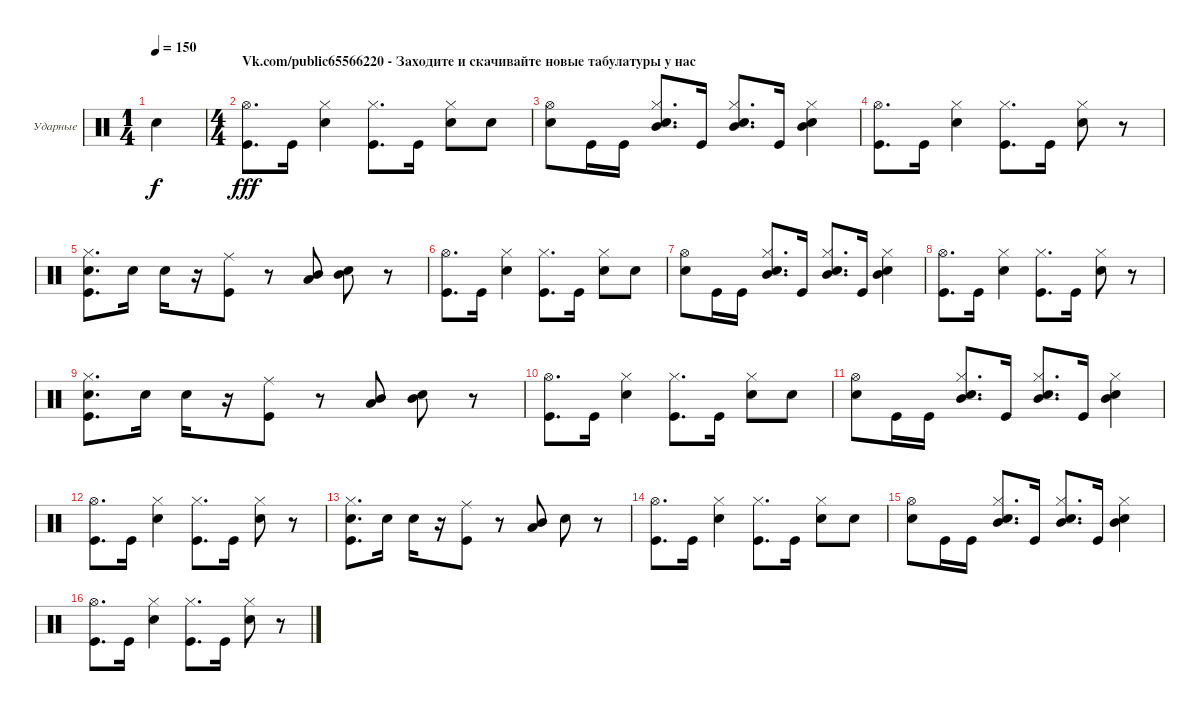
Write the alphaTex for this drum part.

\bracketExtendMode groupsimilarinstruments
\firstSystemTrackNameOrientation horizontal
\otherSystemsTrackNameOrientation horizontal
\track ("Максим Удалов" "Ударные") {instrument percussion}
\staff {score}
\articulation defaults
\ts (1 4)
\tempo 150
\clef neutral
\ks c "Snare (hit) 2".4{dy f}
|
\ts (4 4)
\section ("" "Vk.com/public65566220 - Заходите и скачивайте новые табулатуры у нас")
("Hi-Hat (open)" "Kick (hit)").8{d dy fff} "Kick (hit)".16 ("Hi-Hat (closed)" "Snare (hit) 2").4 ("Hi-Hat (closed)" "Kick (hit)").8{d} "Kick (hit)".16 ("Hi-Hat (closed)" "Snare (hit) 2").8 "Snare (hit) 2".8 |
("Hi-Hat (open)" "Snare (hit) 2").8 "Kick (hit)".16 "Kick (hit)".16 ("Hi-Hat (closed)" "Mid Tom (hit)" "Snare (hit) 2").8{d} "Kick (hit)".16 ("Hi-Hat (closed)" "Mid Tom (hit)" "Snare (hit) 2").8{d} "Kick (hit)".16 ("Hi-Hat (closed)" "Mid Tom (hit)" "Snare (hit) 2").4 |
("Hi-Hat (open)" "Kick (hit)").8{d} "Kick (hit)".16 ("Hi-Hat (closed)" "Snare (hit) 2").4 ("Hi-Hat (closed)" "Kick (hit)").8{d} "Kick (hit)".16 ("Hi-Hat (closed)" "Snare (hit) 2").8 r.8 |
("Hi-Hat (closed)" "Snare (hit) 2" "Kick (hit)").8{d} "Snare (hit) 2".16 "Snare (hit) 2".16 r.16 ("Ride (middle)" "Kick (hit)").8 r.8 ("Low Tom (hit)" "Mid Tom (hit)").8 ("Mid Tom (hit)" "Snare (hit) 2").8 r.8 |
("Hi-Hat (open)" "Kick (hit)").8{d} "Kick (hit)".16 ("Hi-Hat (closed)" "Snare (hit) 2").4 ("Hi-Hat (closed)" "Kick (hit)").8{d} "Kick (hit)".16 ("Hi-Hat (closed)" "Snare (hit) 2").8 "Snare (hit) 2".8 |
("Hi-Hat (open)" "Snare (hit) 2").8 "Kick (hit)".16 "Kick (hit)".16 ("Hi-Hat (closed)" "Mid Tom (hit)" "Snare (hit) 2").8{d} "Kick (hit)".16 ("Hi-Hat (closed)" "Mid Tom (hit)" "Snare (hit) 2").8{d} "Kick (hit)".16 ("Hi-Hat (closed)" "Mid Tom (hit)" "Snare (hit) 2").4 |
("Hi-Hat (open)" "Kick (hit)").8{d} "Kick (hit)".16 ("Hi-Hat (closed)" "Snare (hit) 2").4 ("Hi-Hat (closed)" "Kick (hit)").8{d} "Kick (hit)".16 ("Hi-Hat (closed)" "Snare (hit) 2").8 r.8 |
("Hi-Hat (closed)" "Snare (hit) 2" "Kick (hit)").8{d} "Snare (hit) 2".16 "Snare (hit) 2".16 r.16 ("Ride (middle)" "Kick (hit)").8 r.8 ("Low Tom (hit)" "Mid Tom (hit)").8 ("Mid Tom (hit)" "Snare (hit) 2").8 r.8 |
("Hi-Hat (open)" "Kick (hit)").8{d} "Kick (hit)".16 ("Hi-Hat (closed)" "Snare (hit) 2").4 ("Hi-Hat (closed)" "Kick (hit)").8{d} "Kick (hit)".16 ("Hi-Hat (closed)" "Snare (hit) 2").8 "Snare (hit) 2".8 |
("Hi-Hat (open)" "Snare (hit) 2").8 "Kick (hit)".16 "Kick (hit)".16 ("Hi-Hat (closed)" "Mid Tom (hit)" "Snare (hit) 2").8{d} "Kick (hit)".16 ("Hi-Hat (closed)" "Mid Tom (hit)" "Snare (hit) 2").8{d} "Kick (hit)".16 ("Hi-Hat (closed)" "Mid Tom (hit)" "Snare (hit) 2").4 |
("Hi-Hat (open)" "Kick (hit)").8{d} "Kick (hit)".16 ("Hi-Hat (closed)" "Snare (hit) 2").4 ("Hi-Hat (closed)" "Kick (hit)").8{d} "Kick (hit)".16 ("Hi-Hat (closed)" "Snare (hit) 2").8 r.8 |
("Hi-Hat (closed)" "Snare (hit) 2" "Kick (hit)").8{d} "Snare (hit) 2".16 "Snare (hit) 2".16 r.16 ("Ride (middle)" "Kick (hit)").8 r.8 ("Low Tom (hit)" "Mid Tom (hit)").8 "Snare (hit) 2".8 r.8 |
("Hi-Hat (open)" "Kick (hit)").8{d} "Kick (hit)".16 ("Hi-Hat (closed)" "Snare (hit) 2").4 ("Hi-Hat (closed)" "Kick (hit)").8{d} "Kick (hit)".16 ("Hi-Hat (closed)" "Snare (hit) 2").8 "Snare (hit) 2".8 |
("Hi-Hat (open)" "Snare (hit) 2").8 "Kick (hit)".16 "Kick (hit)".16 ("Hi-Hat (closed)" "Mid Tom (hit)" "Snare (hit) 2").8{d} "Kick (hit)".16 ("Hi-Hat (closed)" "Mid Tom (hit)" "Snare (hit) 2").8{d} "Kick (hit)".16 ("Hi-Hat (closed)" "Mid Tom (hit)" "Snare (hit) 2").4 |
("Hi-Hat (open)" "Kick (hit)").8{d} "Kick (hit)".16 ("Hi-Hat (closed)" "Snare (hit) 2").4 ("Hi-Hat (closed)" "Kick (hit)").8{d} "Kick (hit)".16 ("Hi-Hat (closed)" "Snare (hit) 2").8 r.8
